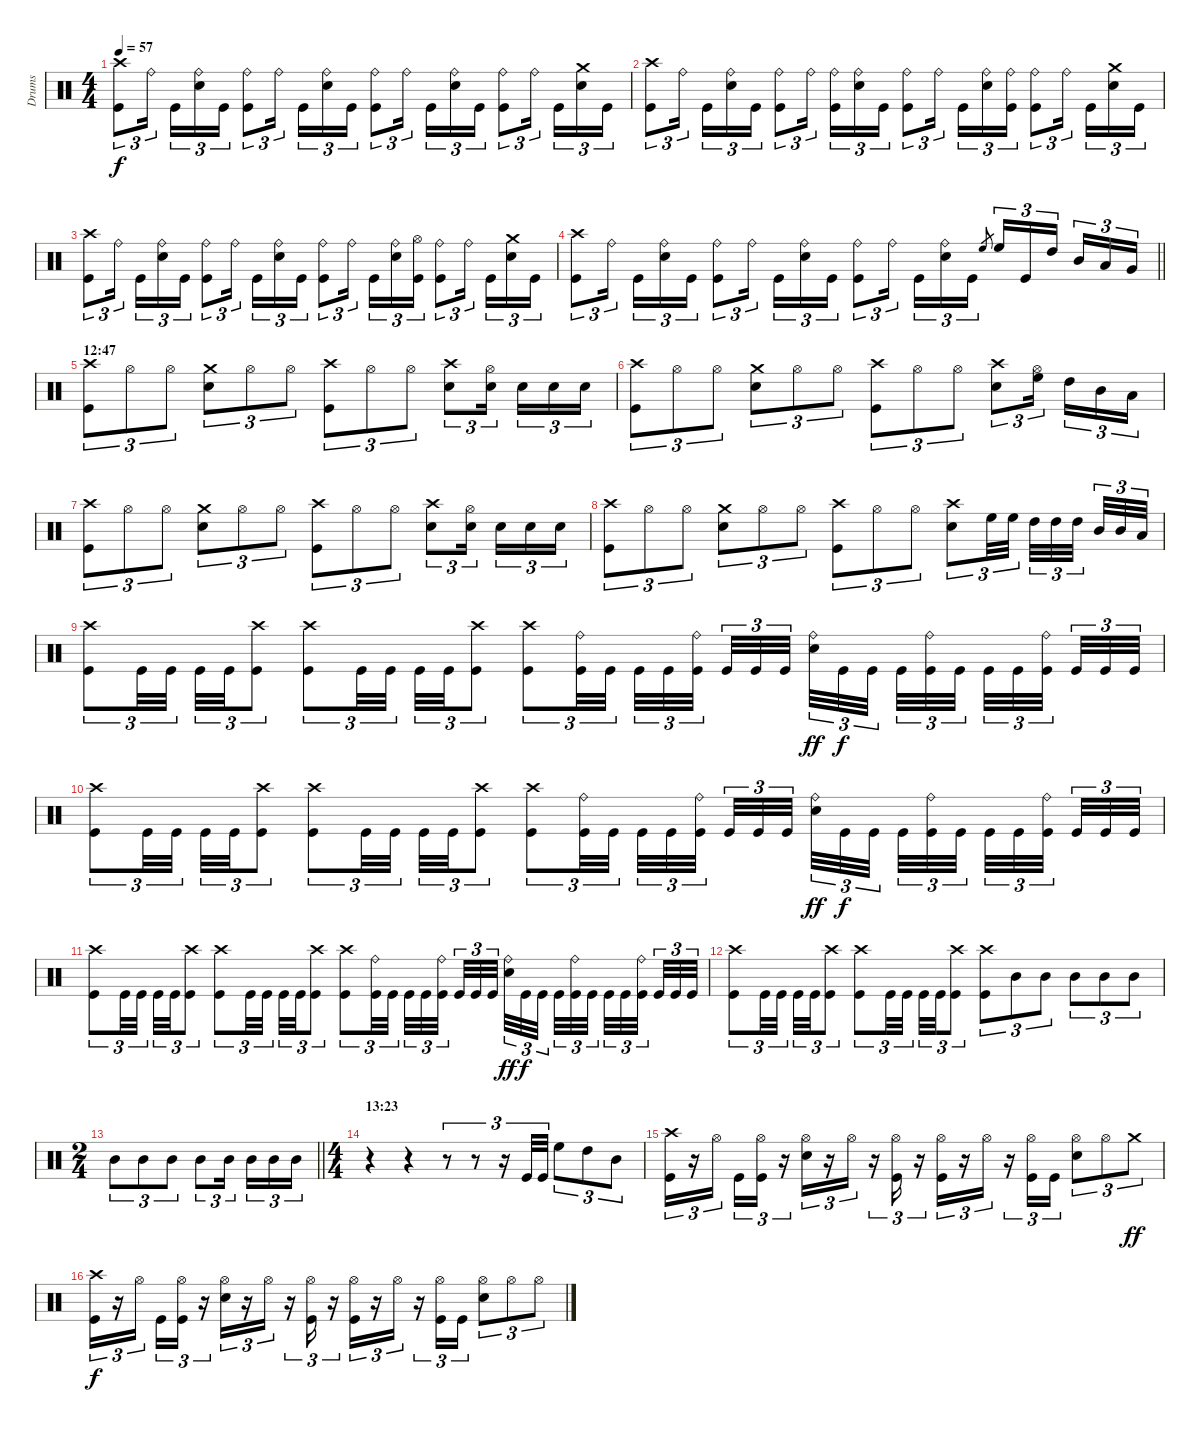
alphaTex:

\track ("Drums" "Drums") {instrument percussion}
\staff {score}
\articulation defaults
\ts (4 4)
\tempo 57
\clef neutral
\ks c
("Crash high (hit)" "Kick (hit)").8{tu (3 2) dy f} "Ride (bell)".16{tu (3 2) beam splitsecondary} "Kick (hit)".16{tu (3 2)} ("Snare (hit) 2" "Ride (bell)").16{tu (3 2)} "Kick (hit)".16{tu (3 2)} ("Ride (bell)" "Kick (hit)").8{tu (3 2)} "Ride (bell)".16{tu (3 2) beam splitsecondary} "Kick (hit)".16{tu (3 2)} ("Snare (hit) 2" "Ride (bell)").16{tu (3 2)} "Kick (hit)".16{tu (3 2)} ("Ride (bell)" "Kick (hit)").8{tu (3 2)} "Ride (bell)".16{tu (3 2) beam splitsecondary} "Kick (hit)".16{tu (3 2)} ("Snare (hit) 2" "Ride (bell)").16{tu (3 2)} "Kick (hit)".16{tu (3 2)} ("Ride (bell)" "Kick (hit)").8{tu (3 2)} "Ride (bell)".16{tu (3 2) beam splitsecondary} "Kick (hit)".16{tu (3 2)} ("Snare (hit) 2" "Crash medium (hit)").16{tu (3 2)} "Kick (hit)".16{tu (3 2)} |
("Crash high (hit)" "Kick (hit)").8{tu (3 2)} "Ride (bell)".16{tu (3 2) beam splitsecondary} "Kick (hit)".16{tu (3 2)} ("Snare (hit) 2" "Ride (bell)").16{tu (3 2)} "Kick (hit)".16{tu (3 2)} ("Ride (bell)" "Kick (hit)").8{tu (3 2)} "Ride (bell)".16{tu (3 2) beam splitsecondary} ("Kick (hit)" "Ride (bell)").16{tu (3 2)} ("Snare (hit) 2" "Ride (bell)").16{tu (3 2)} "Kick (hit)".16{tu (3 2)} ("Ride (bell)" "Kick (hit)").8{tu (3 2)} "Ride (bell)".16{tu (3 2) beam splitsecondary} "Kick (hit)".16{tu (3 2)} ("Snare (hit) 2" "Ride (bell)").16{tu (3 2)} ("Kick (hit)" "Ride (bell)").16{tu (3 2)} ("Ride (bell)" "Kick (hit)").8{tu (3 2)} "Ride (bell)".16{tu (3 2) beam splitsecondary} "Kick (hit)".16{tu (3 2)} ("Snare (hit) 2" "Crash medium (hit)").16{tu (3 2)} "Kick (hit)".16{tu (3 2)} |
("Crash high (hit)" "Kick (hit)").8{tu (3 2)} "Ride (bell)".16{tu (3 2) beam splitsecondary} "Kick (hit)".16{tu (3 2)} ("Snare (hit) 2" "Ride (bell)").16{tu (3 2)} "Kick (hit)".16{tu (3 2)} ("Ride (bell)" "Kick (hit)").8{tu (3 2)} "Ride (bell)".16{tu (3 2) beam splitsecondary} "Kick (hit)".16{tu (3 2)} ("Snare (hit) 2" "Ride (bell)").16{tu (3 2)} "Kick (hit)".16{tu (3 2)} ("Ride (bell)" "Kick (hit)").8{tu (3 2)} "Ride (bell)".16{tu (3 2) beam splitsecondary} "Kick (hit)".16{tu (3 2)} ("Snare (hit) 2" "Ride (bell)").16{tu (3 2)} ("Kick (hit)" "Hi-Hat (open)").16{tu (3 2)} ("Ride (bell)" "Kick (hit)").8{tu (3 2)} "Ride (bell)".16{tu (3 2) beam splitsecondary} "Kick (hit)".16{tu (3 2)} ("Snare (hit) 2" "Crash medium (hit)").16{tu (3 2)} "Kick (hit)".16{tu (3 2)} |
\barLineRight lightlight
("Crash high (hit)" "Kick (hit)").8{tu (3 2)} "Ride (bell)".16{tu (3 2) beam splitsecondary} "Kick (hit)".16{tu (3 2)} ("Snare (hit) 2" "Ride (bell)").16{tu (3 2)} "Kick (hit)".16{tu (3 2)} ("Ride (bell)" "Kick (hit)").8{tu (3 2)} "Ride (bell)".16{tu (3 2) beam splitsecondary} "Kick (hit)".16{tu (3 2)} ("Snare (hit) 2" "Ride (bell)").16{tu (3 2)} "Kick (hit)".16{tu (3 2)} ("Ride (bell)" "Kick (hit)").8{tu (3 2)} "Ride (bell)".16{tu (3 2) beam splitsecondary} "Kick (hit)".16{tu (3 2)} ("Snare (hit) 2" "Ride (bell)").16{tu (3 2)} "Kick (hit)".16{tu (3 2)} "High Floor Tom (hit)".8{gr} "High Floor Tom (hit)".16{tu (3 2)} "Kick (hit)".16{tu (3 2)} "High Tom (hit)".16{tu (3 2) beam splitsecondary} "Mid Tom (hit)".16{tu (3 2)} "Low Tom (hit)".16{tu (3 2)} "Very Low Tom (hit)".16{tu (3 2)} |
\section ("" "12:47")
("Crash high (hit)" "Kick (hit)").8{tu (3 2)} "Hi-Hat (open)".8{tu (3 2)} "Hi-Hat (open)".8{tu (3 2)} ("Crash medium (hit)" "Snare (hit) 2").8{tu (3 2)} "Hi-Hat (open)".8{tu (3 2)} "Hi-Hat (open)".8{tu (3 2)} ("Crash high (hit)" "Kick (hit)").8{tu (3 2)} "Hi-Hat (open)".8{tu (3 2)} "Hi-Hat (open)".8{tu (3 2)} ("Crash high (hit)" "Snare (hit) 2").8{tu (3 2)} ("Snare (hit) 2" "Hi-Hat (open)").16{tu (3 2) beam splitsecondary} "Snare (hit) 2".16{tu (3 2)} "Snare (hit) 2".16{tu (3 2)} "Snare (hit) 2".16{tu (3 2)} |
("Crash high (hit)" "Kick (hit)").8{tu (3 2)} "Hi-Hat (open)".8{tu (3 2)} "Hi-Hat (open)".8{tu (3 2)} ("Crash medium (hit)" "Snare (hit) 2").8{tu (3 2)} "Hi-Hat (open)".8{tu (3 2)} "Hi-Hat (open)".8{tu (3 2)} ("Crash high (hit)" "Kick (hit)").8{tu (3 2)} "Hi-Hat (open)".8{tu (3 2)} "Hi-Hat (open)".8{tu (3 2)} ("Crash high (hit)" "Snare (hit) 2").8{tu (3 2)} ("Hi-Hat (open)" "High Floor Tom (hit)").16{tu (3 2) beam splitsecondary} "High Tom (hit)".16{tu (3 2)} "Mid Tom (hit)".16{tu (3 2)} "Low Tom (hit)".16{tu (3 2)} |
("Crash high (hit)" "Kick (hit)").8{tu (3 2)} "Hi-Hat (open)".8{tu (3 2)} "Hi-Hat (open)".8{tu (3 2)} ("Crash medium (hit)" "Snare (hit) 2").8{tu (3 2)} "Hi-Hat (open)".8{tu (3 2)} "Hi-Hat (open)".8{tu (3 2)} ("Crash high (hit)" "Kick (hit)").8{tu (3 2)} "Hi-Hat (open)".8{tu (3 2)} "Hi-Hat (open)".8{tu (3 2)} ("Crash high (hit)" "Snare (hit) 2").8{tu (3 2)} ("Snare (hit) 2" "Hi-Hat (open)").16{tu (3 2) beam splitsecondary} "Snare (hit) 2".16{tu (3 2)} "Snare (hit) 2".16{tu (3 2)} "Snare (hit) 2".16{tu (3 2)} |
("Crash high (hit)" "Kick (hit)").8{tu (3 2)} "Hi-Hat (open)".8{tu (3 2)} "Hi-Hat (open)".8{tu (3 2)} ("Crash medium (hit)" "Snare (hit) 2").8{tu (3 2)} "Hi-Hat (open)".8{tu (3 2)} "Hi-Hat (open)".8{tu (3 2)} ("Crash high (hit)" "Kick (hit)").8{tu (3 2)} "Hi-Hat (open)".8{tu (3 2)} "Hi-Hat (open)".8{tu (3 2)} ("Crash high (hit)" "Snare (hit) 2").8{tu (3 2)} "High Floor Tom (hit)".32{tu (3 2)} "High Floor Tom (hit)".32{tu (3 2) beam splitsecondary} "High Tom (hit)".32{tu (3 2)} "High Tom (hit)".32{tu (3 2)} "High Tom (hit)".32{tu (3 2) beam splitsecondary} "Mid Tom (hit)".32{tu (3 2)} "Mid Tom (hit)".32{tu (3 2)} "Low Tom (hit)".32{tu (3 2)} |
("Crash high (hit)" "Kick (hit)").8{tu (3 2)} "Kick (hit)".32{tu (3 2)} "Kick (hit)".32{tu (3 2) beam splitsecondary} "Kick (hit)".32{tu (3 2)} "Kick (hit)".32{tu (3 2)} ("Kick (hit)" "Crash high (hit)").8{tu (3 2)} ("Crash high (hit)" "Kick (hit)").8{tu (3 2)} "Kick (hit)".32{tu (3 2)} "Kick (hit)".32{tu (3 2) beam splitsecondary} "Kick (hit)".32{tu (3 2)} "Kick (hit)".32{tu (3 2)} ("Crash high (hit)" "Kick (hit)").8{tu (3 2)} ("Crash high (hit)" "Kick (hit)").8{tu (3 2)} ("Kick (hit)" "Ride (bell)").32{tu (3 2)} "Kick (hit)".32{tu (3 2) beam splitsecondary} "Kick (hit)".32{tu (3 2)} "Kick (hit)".32{tu (3 2)} ("Kick (hit)" "Ride (bell)").32{tu (3 2) beam splitsecondary} "Kick (hit)".32{tu (3 2)} "Kick (hit)".32{tu (3 2)} "Kick (hit)".32{tu (3 2)} ("Snare (hit) 2" "Ride (bell)").32{tu (3 2) dy ff} "Kick (hit)".32{tu (3 2) dy f} "Kick (hit)".32{tu (3 2) beam splitsecondary} "Kick (hit)".32{tu (3 2)} ("Kick (hit)" "Ride (bell)").32{tu (3 2)} "Kick (hit)".32{tu (3 2) beam splitsecondary} "Kick (hit)".32{tu (3 2)} "Kick (hit)".32{tu (3 2)} ("Kick (hit)" "Ride (bell)").32{tu (3 2) beam splitsecondary} "Kick (hit)".32{tu (3 2)} "Kick (hit)".32{tu (3 2)} "Kick (hit)".32{tu (3 2)} |
("Crash high (hit)" "Kick (hit)").8{tu (3 2)} "Kick (hit)".32{tu (3 2)} "Kick (hit)".32{tu (3 2) beam splitsecondary} "Kick (hit)".32{tu (3 2)} "Kick (hit)".32{tu (3 2)} ("Kick (hit)" "Crash high (hit)").8{tu (3 2)} ("Crash high (hit)" "Kick (hit)").8{tu (3 2)} "Kick (hit)".32{tu (3 2)} "Kick (hit)".32{tu (3 2) beam splitsecondary} "Kick (hit)".32{tu (3 2)} "Kick (hit)".32{tu (3 2)} ("Crash high (hit)" "Kick (hit)").8{tu (3 2)} ("Crash high (hit)" "Kick (hit)").8{tu (3 2)} ("Kick (hit)" "Ride (bell)").32{tu (3 2)} "Kick (hit)".32{tu (3 2) beam splitsecondary} "Kick (hit)".32{tu (3 2)} "Kick (hit)".32{tu (3 2)} ("Kick (hit)" "Ride (bell)").32{tu (3 2) beam splitsecondary} "Kick (hit)".32{tu (3 2)} "Kick (hit)".32{tu (3 2)} "Kick (hit)".32{tu (3 2)} ("Snare (hit) 2" "Ride (bell)").32{tu (3 2) dy ff} "Kick (hit)".32{tu (3 2) dy f} "Kick (hit)".32{tu (3 2) beam splitsecondary} "Kick (hit)".32{tu (3 2)} ("Kick (hit)" "Ride (bell)").32{tu (3 2)} "Kick (hit)".32{tu (3 2) beam splitsecondary} "Kick (hit)".32{tu (3 2)} "Kick (hit)".32{tu (3 2)} ("Kick (hit)" "Ride (bell)").32{tu (3 2) beam splitsecondary} "Kick (hit)".32{tu (3 2)} "Kick (hit)".32{tu (3 2)} "Kick (hit)".32{tu (3 2)} |
("Crash high (hit)" "Kick (hit)").8{tu (3 2)} "Kick (hit)".32{tu (3 2)} "Kick (hit)".32{tu (3 2) beam splitsecondary} "Kick (hit)".32{tu (3 2)} "Kick (hit)".32{tu (3 2)} ("Kick (hit)" "Crash high (hit)").8{tu (3 2)} ("Crash high (hit)" "Kick (hit)").8{tu (3 2)} "Kick (hit)".32{tu (3 2)} "Kick (hit)".32{tu (3 2) beam splitsecondary} "Kick (hit)".32{tu (3 2)} "Kick (hit)".32{tu (3 2)} ("Crash high (hit)" "Kick (hit)").8{tu (3 2)} ("Crash high (hit)" "Kick (hit)").8{tu (3 2)} ("Kick (hit)" "Ride (bell)").32{tu (3 2)} "Kick (hit)".32{tu (3 2) beam splitsecondary} "Kick (hit)".32{tu (3 2)} "Kick (hit)".32{tu (3 2)} ("Kick (hit)" "Ride (bell)").32{tu (3 2) beam splitsecondary} "Kick (hit)".32{tu (3 2)} "Kick (hit)".32{tu (3 2)} "Kick (hit)".32{tu (3 2)} ("Snare (hit) 2" "Ride (bell)").32{tu (3 2) dy ff} "Kick (hit)".32{tu (3 2) dy f} "Kick (hit)".32{tu (3 2) beam splitsecondary} "Kick (hit)".32{tu (3 2)} ("Kick (hit)" "Ride (bell)").32{tu (3 2)} "Kick (hit)".32{tu (3 2) beam splitsecondary} "Kick (hit)".32{tu (3 2)} "Kick (hit)".32{tu (3 2)} ("Kick (hit)" "Ride (bell)").32{tu (3 2) beam splitsecondary} "Kick (hit)".32{tu (3 2)} "Kick (hit)".32{tu (3 2)} "Kick (hit)".32{tu (3 2)} |
("Crash high (hit)" "Kick (hit)").8{tu (3 2)} "Kick (hit)".32{tu (3 2)} "Kick (hit)".32{tu (3 2) beam splitsecondary} "Kick (hit)".32{tu (3 2)} "Kick (hit)".32{tu (3 2)} ("Kick (hit)" "Crash high (hit)").8{tu (3 2)} ("Crash high (hit)" "Kick (hit)").8{tu (3 2)} "Kick (hit)".32{tu (3 2)} "Kick (hit)".32{tu (3 2) beam splitsecondary} "Kick (hit)".32{tu (3 2)} "Kick (hit)".32{tu (3 2)} ("Crash high (hit)" "Kick (hit)").8{tu (3 2)} ("Crash high (hit)" "Kick (hit)").8{tu (3 2)} "Mid Tom (hit)".8{tu (3 2)} "Mid Tom (hit)".8{tu (3 2)} "Mid Tom (hit)".8{tu (3 2)} "Mid Tom (hit)".8{tu (3 2)} "Mid Tom (hit)".8{tu (3 2)} |
\ts (2 4)
\barLineRight lightlight "Mid Tom (hit)".8{tu (3 2)} "Mid Tom (hit)".8{tu (3 2)} "Mid Tom (hit)".8{tu (3 2)} "Mid Tom (hit)".8{tu (3 2)} "Mid Tom (hit)".16{tu (3 2) beam splitsecondary} "Mid Tom (hit)".16{tu (3 2)} "Mid Tom (hit)".16{tu (3 2)} "Mid Tom (hit)".16{tu (3 2)}
|
\ts (4 4)
\section ("" "13:23")
r.4 r.4 r.8{tu (3 2)} r.8{tu (3 2)} r.16{tu (3 2)} "Kick (hit)".32{tu (3 2)} "Kick (hit)".32{tu (3 2)} "High Floor Tom (hit)".8{tu (3 2)} "High Tom (hit)".8{tu (3 2)} "Mid Tom (hit)".8{tu (3 2)} |
("Crash high (hit)" "Kick (hit)").16{tu (3 2)} r.16{tu (3 2)} "Hi-Hat (open)".16{tu (3 2) beam splitsecondary} "Kick (hit)".16{tu (3 2)} ("Kick (hit)" "Hi-Hat (open)").16{tu (3 2)} r.16{tu (3 2)} ("Snare (hit) 2" "Hi-Hat (open)").16{tu (3 2)} r.16{tu (3 2)} "Hi-Hat (open)".16{tu (3 2)} r.16{tu (3 2)} ("Kick (hit)" "Hi-Hat (open)").16{tu (3 2)} r.16{tu (3 2)} ("Kick (hit)" "Hi-Hat (open)").16{tu (3 2)} r.16{tu (3 2)} "Hi-Hat (open)".16{tu (3 2)} r.16{tu (3 2)} ("Hi-Hat (open)" "Kick (hit)").16{tu (3 2)} "Kick (hit)".16{tu (3 2)} ("Snare (hit) 2" "Hi-Hat (open)").8{tu (3 2)} "Hi-Hat (open)".8{tu (3 2)} "Crash medium (hit)".8{tu (3 2) dy ff} |
("Crash high (hit)" "Kick (hit)").16{tu (3 2) dy f} r.16{tu (3 2)} "Hi-Hat (open)".16{tu (3 2) beam splitsecondary} "Kick (hit)".16{tu (3 2)} ("Kick (hit)" "Hi-Hat (open)").16{tu (3 2)} r.16{tu (3 2)} ("Snare (hit) 2" "Hi-Hat (open)").16{tu (3 2)} r.16{tu (3 2)} "Hi-Hat (open)".16{tu (3 2)} r.16{tu (3 2)} ("Kick (hit)" "Hi-Hat (open)").16{tu (3 2)} r.16{tu (3 2)} ("Kick (hit)" "Hi-Hat (open)").16{tu (3 2)} r.16{tu (3 2)} "Hi-Hat (open)".16{tu (3 2)} r.16{tu (3 2)} ("Hi-Hat (open)" "Kick (hit)").16{tu (3 2)} "Kick (hit)".16{tu (3 2)} ("Snare (hit) 2" "Hi-Hat (open)").8{tu (3 2)} "Hi-Hat (open)".8{tu (3 2)} "Hi-Hat (open)".8{tu (3 2)}
